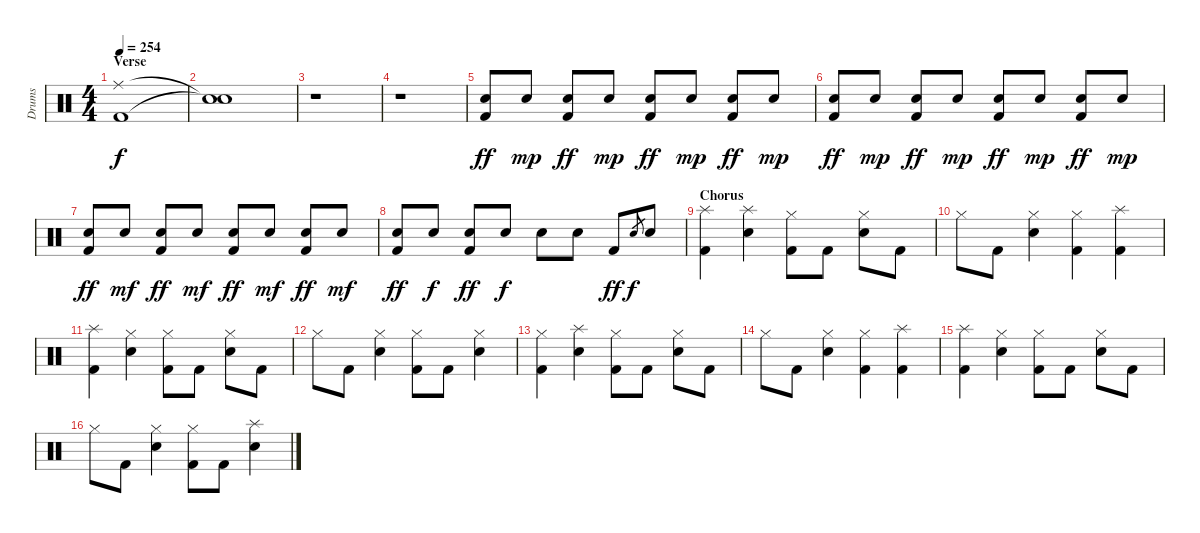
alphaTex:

\track ("Drums" "Drums") {instrument percussion}
\staff {score}
\articulation defaults
\ts (4 4)
\section ("" "Verse")
\tempo 254
\clef neutral
\ks c
("Ride (middle)" "Kick (hit) 2").1{dy f} |
("Snare (hit)"{t} "Snare (hit)"{t}).1 |
r.1 |
r.1 |
("Electric Snare (hit)" "Kick (hit) 2").8{dy ff} "Electric Snare (hit)".8{dy mp} ("Electric Snare (hit)" "Kick (hit) 2").8{dy ff} "Electric Snare (hit)".8{dy mp} ("Electric Snare (hit)" "Kick (hit) 2").8{dy ff} "Electric Snare (hit)".8{dy mp} ("Electric Snare (hit)" "Kick (hit) 2").8{dy ff} "Electric Snare (hit)".8{dy mp} |
("Electric Snare (hit)" "Kick (hit) 2").8{dy ff} "Electric Snare (hit)".8{dy mp} ("Electric Snare (hit)" "Kick (hit) 2").8{dy ff} "Electric Snare (hit)".8{dy mp} ("Electric Snare (hit)" "Kick (hit) 2").8{dy ff} "Electric Snare (hit)".8{dy mp} ("Electric Snare (hit)" "Kick (hit) 2").8{dy ff} "Electric Snare (hit)".8{dy mp} |
("Electric Snare (hit)" "Kick (hit) 2").8{dy ff} "Electric Snare (hit)".8{dy mf} ("Electric Snare (hit)" "Kick (hit) 2").8{dy ff} "Electric Snare (hit)".8{dy mf} ("Electric Snare (hit)" "Kick (hit) 2").8{dy ff} "Electric Snare (hit)".8{dy mf} ("Electric Snare (hit)" "Kick (hit) 2").8{dy ff} "Electric Snare (hit)".8{dy mf} |
("Electric Snare (hit)" "Kick (hit) 2").8{dy ff} "Electric Snare (hit)".8{dy f} ("Electric Snare (hit)" "Kick (hit) 2").8{dy ff} "Electric Snare (hit)".8{dy f} "Electric Snare (hit)".8 "Electric Snare (hit)".8 "Kick (hit) 2".8{dy ff} "Electric Snare (hit)".8{gr dy f} "Electric Snare (hit)".8 |
\section ("" "Chorus")
("Splash (hit)" "Kick (hit) 2").4 ("Splash (hit)" "Electric Snare (hit)").4 ("Hi-Hat (closed)" "Kick (hit) 2").8 "Kick (hit) 2".8 ("Hi-Hat (closed)" "Electric Snare (hit)").8 "Kick (hit) 2".8 |
"Hi-Hat (closed)".8 "Kick (hit) 2".8 ("Hi-Hat (closed)" "Electric Snare (hit)").4 ("Hi-Hat (closed)" "Kick (hit) 2").4 ("Splash (hit)" "Kick (hit) 2").4 |
("Splash (hit)" "Kick (hit) 2").4 ("Hi-Hat (closed)" "Electric Snare (hit)").4 ("Hi-Hat (closed)" "Kick (hit) 2").8 "Kick (hit) 2".8 ("Hi-Hat (closed)" "Electric Snare (hit)").8 "Kick (hit) 2".8 |
"Hi-Hat (closed)".8 "Kick (hit) 2".8 ("Hi-Hat (closed)" "Electric Snare (hit)").4 ("Hi-Hat (closed)" "Kick (hit) 2").8 "Kick (hit) 2".8 ("Hi-Hat (closed)" "Electric Snare (hit)").4 |
("Hi-Hat (closed)" "Kick (hit) 2").4 ("Splash (hit)" "Electric Snare (hit)").4 ("Hi-Hat (closed)" "Kick (hit) 2").8 "Kick (hit) 2".8 ("Hi-Hat (closed)" "Electric Snare (hit)").8 "Kick (hit) 2".8 |
"Hi-Hat (closed)".8 "Kick (hit) 2".8 ("Hi-Hat (closed)" "Electric Snare (hit)").4 ("Hi-Hat (closed)" "Kick (hit) 2").4 ("Splash (hit)" "Kick (hit) 2").4 |
("Splash (hit)" "Kick (hit) 2").4 ("Hi-Hat (closed)" "Electric Snare (hit)").4 ("Hi-Hat (closed)" "Kick (hit) 2").8 "Kick (hit) 2".8 ("Hi-Hat (closed)" "Electric Snare (hit)").8 "Kick (hit) 2".8 |
"Hi-Hat (closed)".8 "Kick (hit) 2".8 ("Hi-Hat (closed)" "Electric Snare (hit)").4 ("Hi-Hat (closed)" "Kick (hit) 2").8 "Kick (hit) 2".8 ("Splash (hit)" "Electric Snare (hit)").4
